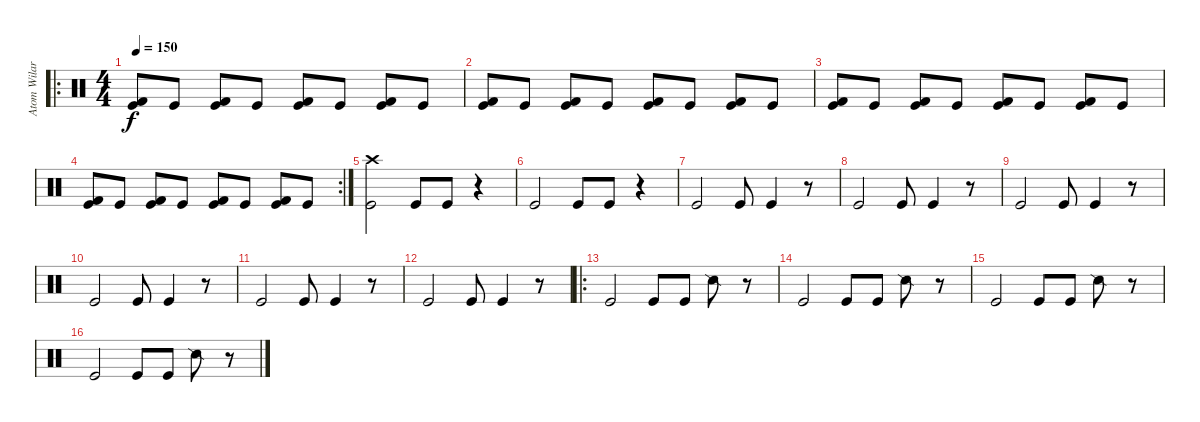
\track ("Atom Wilard" "Atom Wilar") {instrument percussion}
\staff {score}
\articulation defaults
\ro
\ts (4 4)
\tempo 150
\clef neutral
\ks c
("Kick (hit) 2" "Kick (hit)").8{dy f} "Kick (hit)".8 ("Kick (hit) 2" "Kick (hit)").8 "Kick (hit)".8 ("Kick (hit) 2" "Kick (hit)").8 "Kick (hit)".8 ("Kick (hit) 2" "Kick (hit)").8 "Kick (hit)".8 |
("Kick (hit) 2" "Kick (hit)").8 "Kick (hit)".8 ("Kick (hit) 2" "Kick (hit)").8 "Kick (hit)".8 ("Kick (hit) 2" "Kick (hit)").8 "Kick (hit)".8 ("Kick (hit) 2" "Kick (hit)").8 "Kick (hit)".8 |
("Kick (hit) 2" "Kick (hit)").8 "Kick (hit)".8 ("Kick (hit) 2" "Kick (hit)").8 "Kick (hit)".8 ("Kick (hit) 2" "Kick (hit)").8 "Kick (hit)".8 ("Kick (hit) 2" "Kick (hit)").8 "Kick (hit)".8 |
\rc 2
("Kick (hit) 2" "Kick (hit)").8 "Kick (hit)".8 ("Kick (hit) 2" "Kick (hit)").8 "Kick (hit)".8 ("Kick (hit) 2" "Kick (hit)").8 "Kick (hit)".8 ("Kick (hit) 2" "Kick (hit)").8 "Kick (hit)".8 |
("Crash high (hit)" "Kick (hit)").2 "Kick (hit)".8 "Kick (hit)".8 r.4 |
"Kick (hit)".2 "Kick (hit)".8 "Kick (hit)".8 r.4 |
"Kick (hit)".2 "Kick (hit)".8 "Kick (hit)".4 r.8 |
"Kick (hit)".2 "Kick (hit)".8 "Kick (hit)".4 r.8 |
"Kick (hit)".2 "Kick (hit)".8 "Kick (hit)".4 r.8 |
"Kick (hit)".2 "Kick (hit)".8 "Kick (hit)".4 r.8 |
"Kick (hit)".2 "Kick (hit)".8 "Kick (hit)".4 r.8 |
"Kick (hit)".2 "Kick (hit)".8 "Kick (hit)".4 r.8 |
\ro "Kick (hit)".2 "Kick (hit)".8 "Kick (hit)".8 "Snare (side stick) 2".8
r.8 |
"Kick (hit)".2 "Kick (hit)".8 "Kick (hit)".8 "Snare (side stick) 2".8 r.8 |
"Kick (hit)".2 "Kick (hit)".8 "Kick (hit)".8 "Snare (side stick) 2".8 r.8 |
"Kick (hit)".2 "Kick (hit)".8 "Kick (hit)".8 "Snare (side stick) 2".8 r.8
